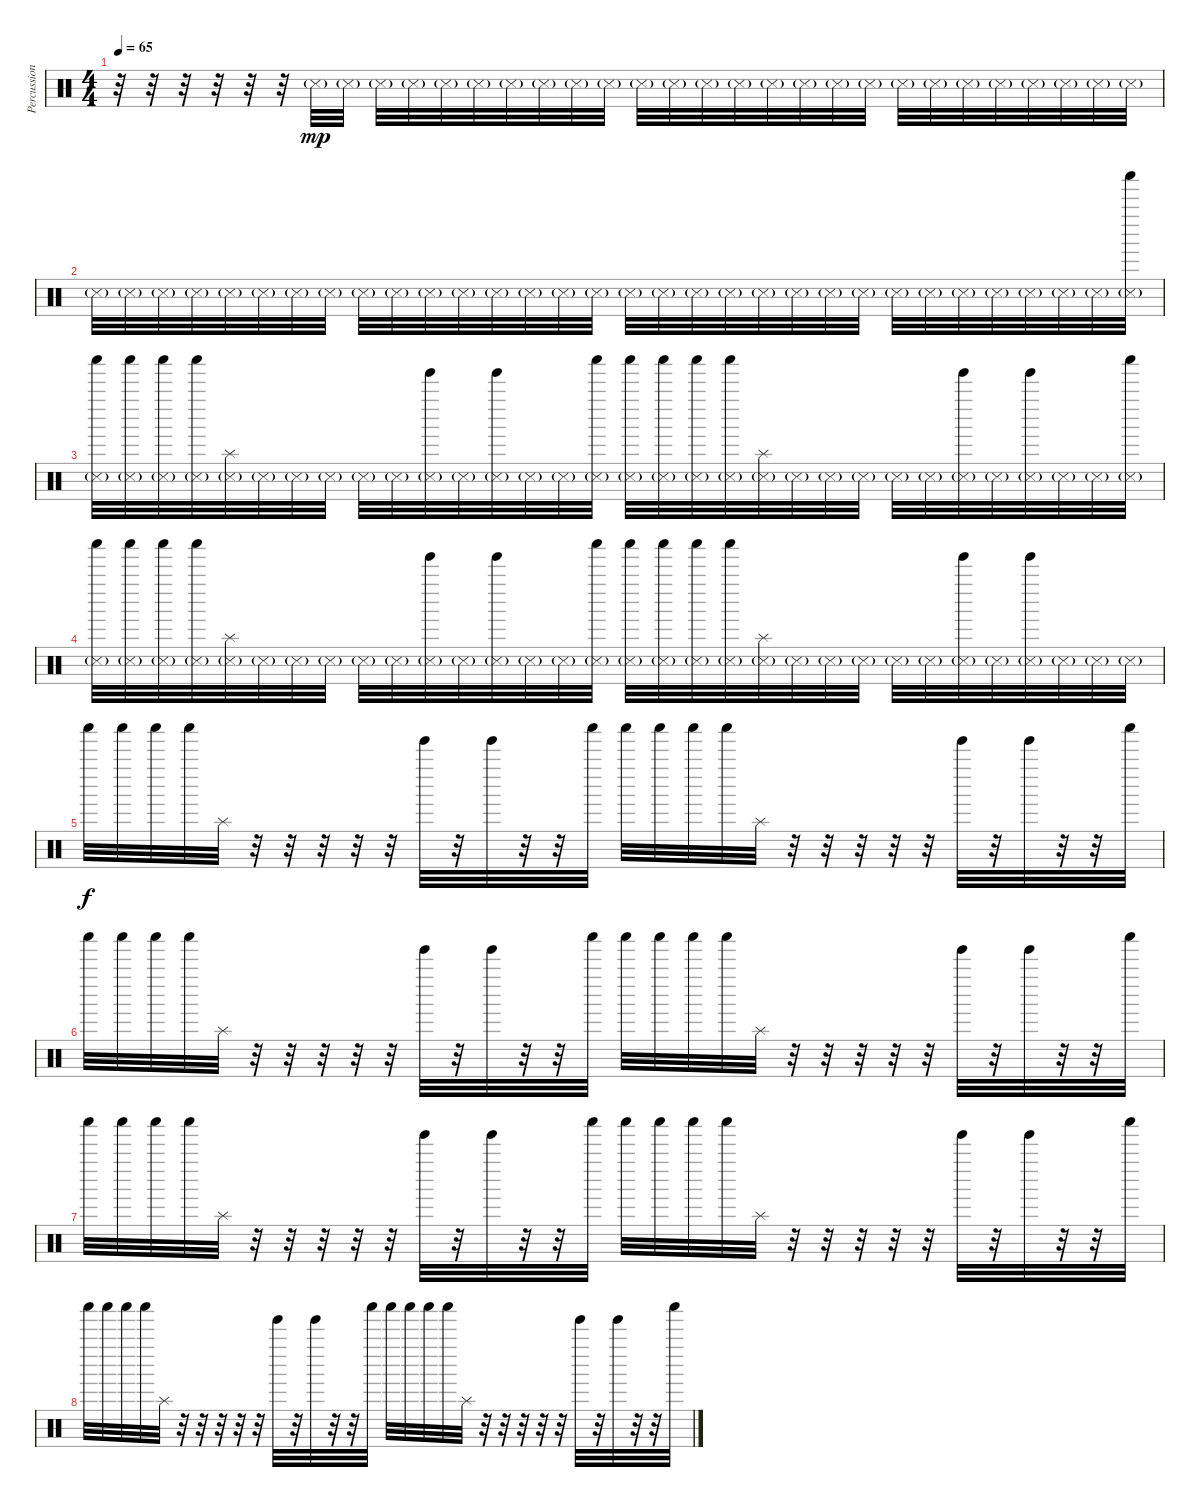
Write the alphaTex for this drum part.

\track ("Percussion 2" "Percussion") {instrument percussion}
\staff {score}
\articulation defaults
\ts (4 4)
\tempo 65
\clef neutral
\ks c
r.32{dy mp} r.32 r.32 r.32 r.32 r.32 "Snare (side stick) 3"{g}.32 "Snare (side stick) 3"{g}.32 "Snare (side stick) 3"{g}.32 "Snare (side stick) 3"{g}.32 "Snare (side stick) 3"{g}.32 "Snare (side stick) 3"{g}.32 "Snare (side stick) 3"{g}.32 "Snare (side stick) 3"{g}.32 "Snare (side stick) 3"{g}.32 "Snare (side stick) 3"{g}.32 "Snare (side stick) 3"{g}.32 "Snare (side stick) 3"{g}.32 "Snare (side stick) 3"{g}.32 "Snare (side stick) 3"{g}.32 "Snare (side stick) 3"{g}.32 "Snare (side stick) 3"{g}.32 "Snare (side stick) 3"{g}.32 "Snare (side stick) 3"{g}.32 "Snare (side stick) 3"{g}.32 "Snare (side stick) 3"{g}.32 "Snare (side stick) 3"{g}.32 "Snare (side stick) 3"{g}.32 "Snare (side stick) 3"{g}.32 "Snare (side stick) 3"{g}.32 "Snare (side stick) 3"{g}.32 "Snare (side stick) 3"{g}.32 |
"Snare (side stick) 3"{g}.32 "Snare (side stick) 3"{g}.32 "Snare (side stick) 3"{g}.32 "Snare (side stick) 3"{g}.32 "Snare (side stick) 3"{g}.32 "Snare (side stick) 3"{g}.32 "Snare (side stick) 3"{g}.32 "Snare (side stick) 3"{g}.32 "Snare (side stick) 3"{g}.32 "Snare (side stick) 3"{g}.32 "Snare (side stick) 3"{g}.32 "Snare (side stick) 3"{g}.32 "Snare (side stick) 3"{g}.32 "Snare (side stick) 3"{g}.32 "Snare (side stick) 3"{g}.32 "Snare (side stick) 3"{g}.32 "Snare (side stick) 3"{g}.32 "Snare (side stick) 3"{g}.32 "Snare (side stick) 3"{g}.32 "Snare (side stick) 3"{g}.32 "Snare (side stick) 3"{g}.32 "Snare (side stick) 3"{g}.32 "Snare (side stick) 3"{g}.32 "Snare (side stick) 3"{g}.32 "Snare (side stick) 3"{g}.32 "Snare (side stick) 3"{g}.32 "Snare (side stick) 3"{g}.32 "Snare (side stick) 3"{g}.32 "Snare (side stick) 3"{g}.32 "Snare (side stick) 3"{g}.32 "Snare (side stick) 3"{g}.32 ("Snare (side stick) 3"{g} "Shaker (hit)").32 |
("Snare (side stick) 3"{g} "Shaker (hit)").32 ("Snare (side stick) 3"{g} "Shaker (hit)").32 ("Snare (side stick) 3"{g} "Shaker (hit)").32 ("Snare (side stick) 3"{g} "Shaker (hit)").32 ("Snare (side stick) 3"{g} "Splash (hit)").32 "Snare (side stick) 3"{g}.32 "Snare (side stick) 3"{g}.32 "Snare (side stick) 3"{g}.32 "Snare (side stick) 3"{g}.32 "Snare (side stick) 3"{g}.32 ("Tinkle Bell (hit)" "Snare (side stick) 3"{g}).32 "Snare (side stick) 3"{g}.32 ("Tinkle Bell (hit)" "Snare (side stick) 3"{g}).32 "Snare (side stick) 3"{g}.32 "Snare (side stick) 3"{g}.32 ("Snare (side stick) 3"{g} "Shaker (hit)").32 ("Snare (side stick) 3"{g} "Shaker (hit)").32 ("Snare (side stick) 3"{g} "Shaker (hit)").32 ("Snare (side stick) 3"{g} "Shaker (hit)").32 ("Snare (side stick) 3"{g} "Shaker (hit)").32 ("Snare (side stick) 3"{g} "Splash (hit)").32 "Snare (side stick) 3"{g}.32 "Snare (side stick) 3"{g}.32 "Snare (side stick) 3"{g}.32 "Snare (side stick) 3"{g}.32 "Snare (side stick) 3"{g}.32 ("Tinkle Bell (hit)" "Snare (side stick) 3"{g}).32 "Snare (side stick) 3"{g}.32 ("Tinkle Bell (hit)" "Snare (side stick) 3"{g}).32 "Snare (side stick) 3"{g}.32 "Snare (side stick) 3"{g}.32 ("Snare (side stick) 3"{g} "Shaker (hit)").32 |
("Snare (side stick) 3"{g} "Shaker (hit)").32 ("Snare (side stick) 3"{g} "Shaker (hit)").32 ("Snare (side stick) 3"{g} "Shaker (hit)").32 ("Snare (side stick) 3"{g} "Shaker (hit)").32 ("Snare (side stick) 3"{g} "Splash (hit)").32 "Snare (side stick) 3"{g}.32 "Snare (side stick) 3"{g}.32 "Snare (side stick) 3"{g}.32 "Snare (side stick) 3"{g}.32 "Snare (side stick) 3"{g}.32 ("Tinkle Bell (hit)" "Snare (side stick) 3"{g}).32 "Snare (side stick) 3"{g}.32 ("Tinkle Bell (hit)" "Snare (side stick) 3"{g}).32 "Snare (side stick) 3"{g}.32 "Snare (side stick) 3"{g}.32 ("Snare (side stick) 3"{g} "Shaker (hit)").32 ("Snare (side stick) 3"{g} "Shaker (hit)").32 ("Snare (side stick) 3"{g} "Shaker (hit)").32 ("Snare (side stick) 3"{g} "Shaker (hit)").32 ("Snare (side stick) 3"{g} "Shaker (hit)").32 ("Snare (side stick) 3"{g} "Splash (hit)").32 "Snare (side stick) 3"{g}.32 "Snare (side stick) 3"{g}.32 "Snare (side stick) 3"{g}.32 "Snare (side stick) 3"{g}.32 "Snare (side stick) 3"{g}.32 ("Tinkle Bell (hit)" "Snare (side stick) 3"{g}).32 "Snare (side stick) 3"{g}.32 ("Tinkle Bell (hit)" "Snare (side stick) 3"{g}).32 "Snare (side stick) 3"{g}.32 "Snare (side stick) 3"{g}.32 "Snare (side stick) 3"{g}.32 |
"Shaker (hit)".32{dy f} "Shaker (hit)".32 "Shaker (hit)".32 "Shaker (hit)".32 "Splash (hit)".32 r.32 r.32 r.32 r.32 r.32 "Tinkle Bell (hit)".32 r.32 "Tinkle Bell (hit)".32 r.32 r.32 "Shaker (hit)".32 "Shaker (hit)".32 "Shaker (hit)".32 "Shaker (hit)".32 "Shaker (hit)".32 "Splash (hit)".32 r.32 r.32 r.32 r.32 r.32 "Tinkle Bell (hit)".32 r.32 "Tinkle Bell (hit)".32 r.32 r.32 "Shaker (hit)".32 |
"Shaker (hit)".32 "Shaker (hit)".32 "Shaker (hit)".32 "Shaker (hit)".32 "Splash (hit)".32 r.32 r.32 r.32 r.32 r.32 "Tinkle Bell (hit)".32 r.32 "Tinkle Bell (hit)".32 r.32 r.32 "Shaker (hit)".32 "Shaker (hit)".32 "Shaker (hit)".32 "Shaker (hit)".32 "Shaker (hit)".32 "Splash (hit)".32 r.32 r.32 r.32 r.32 r.32 "Tinkle Bell (hit)".32 r.32 "Tinkle Bell (hit)".32 r.32 r.32 "Shaker (hit)".32 |
"Shaker (hit)".32 "Shaker (hit)".32 "Shaker (hit)".32 "Shaker (hit)".32 "Splash (hit)".32 r.32 r.32 r.32 r.32 r.32 "Tinkle Bell (hit)".32 r.32 "Tinkle Bell (hit)".32 r.32 r.32 "Shaker (hit)".32 "Shaker (hit)".32 "Shaker (hit)".32 "Shaker (hit)".32 "Shaker (hit)".32 "Splash (hit)".32 r.32 r.32 r.32 r.32 r.32 "Tinkle Bell (hit)".32 r.32 "Tinkle Bell (hit)".32 r.32 r.32 "Shaker (hit)".32 |
"Shaker (hit)".32 "Shaker (hit)".32 "Shaker (hit)".32 "Shaker (hit)".32 "Splash (hit)".32 r.32 r.32 r.32 r.32 r.32 "Tinkle Bell (hit)".32 r.32 "Tinkle Bell (hit)".32 r.32 r.32 "Shaker (hit)".32 "Shaker (hit)".32 "Shaker (hit)".32 "Shaker (hit)".32 "Shaker (hit)".32 "Splash (hit)".32 r.32 r.32 r.32 r.32 r.32 "Tinkle Bell (hit)".32 r.32 "Tinkle Bell (hit)".32 r.32 r.32 "Shaker (hit)".32
